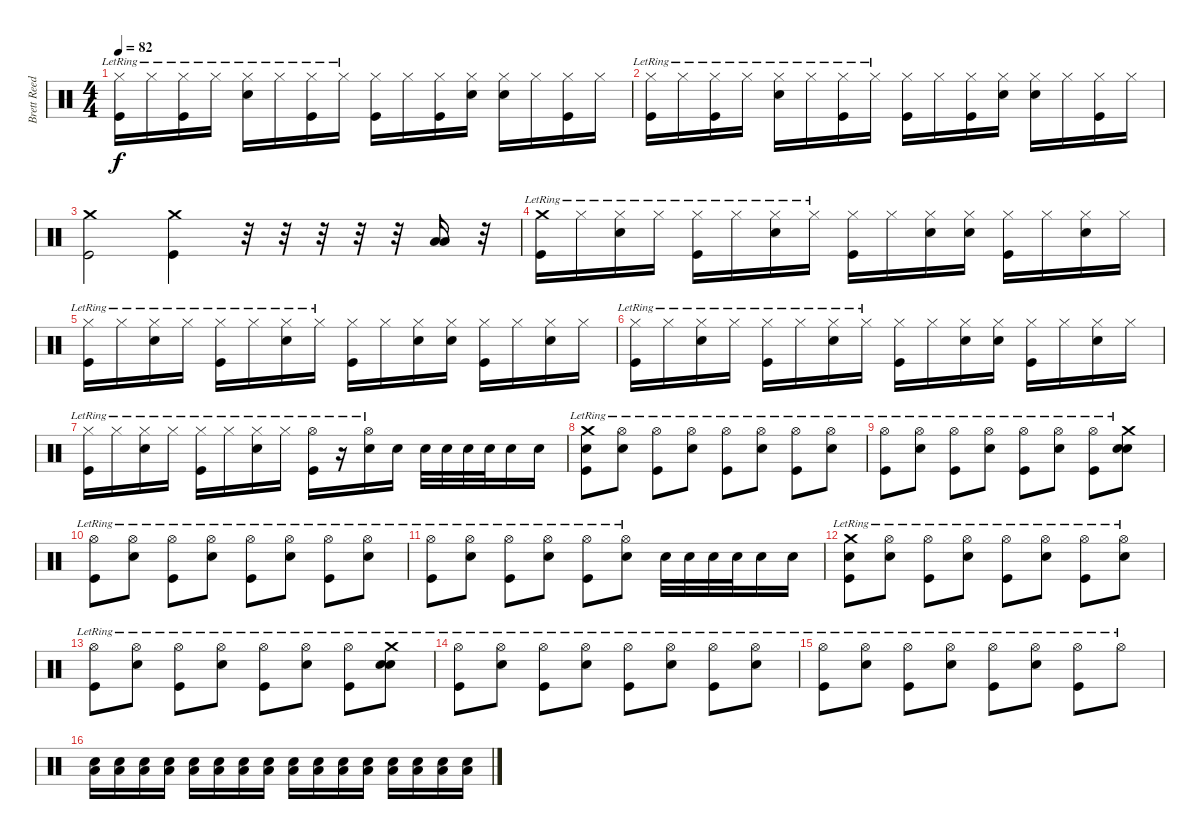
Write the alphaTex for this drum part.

\track ("Brett Reed" "Brett Reed") {instrument percussion}
\staff {score}
\articulation defaults
\ts (4 4)
\tempo 82
\clef neutral
\ks c
("Hi-Hat (closed)"{lr} "Kick (hit)").16{dy f} "Hi-Hat (closed)"{lr}.16 ("Hi-Hat (closed)"{lr} "Kick (hit)").16 "Hi-Hat (closed)"{lr}.16 ("Hi-Hat (closed)"{lr} "Snare (hit) 2").16 "Hi-Hat (closed)"{lr}.16 ("Hi-Hat (closed)"{lr} "Kick (hit)").16 "Hi-Hat (closed)"{lr}.16 ("Hi-Hat (closed)" "Kick (hit)").16 "Hi-Hat (closed)".16 ("Hi-Hat (closed)" "Kick (hit)").16 ("Hi-Hat (closed)" "Snare (hit)").16 ("Hi-Hat (closed)" "Snare (hit) 2").16 "Hi-Hat (closed)".16 ("Hi-Hat (closed)" "Kick (hit)").16 "Hi-Hat (closed)".16 |
("Hi-Hat (closed)"{lr} "Kick (hit)").16 "Hi-Hat (closed)"{lr}.16 ("Hi-Hat (closed)"{lr} "Kick (hit)").16 "Hi-Hat (closed)"{lr}.16 ("Hi-Hat (closed)"{lr} "Snare (hit) 2").16 "Hi-Hat (closed)"{lr}.16 ("Hi-Hat (closed)"{lr} "Kick (hit)").16 "Hi-Hat (closed)"{lr}.16 ("Hi-Hat (closed)" "Kick (hit)").16 "Hi-Hat (closed)".16 ("Hi-Hat (closed)" "Kick (hit)").16 ("Hi-Hat (closed)" "Snare (hit)").16 ("Hi-Hat (closed)" "Snare (hit) 2").16 "Hi-Hat (closed)".16 ("Hi-Hat (closed)" "Kick (hit)").16 "Hi-Hat (closed)".16 |
("Crash medium (hit)" "Kick (hit)").2 ("Crash medium (hit)" "Kick (hit)").4 r.32 r.32 r.32 r.32 r.32 ("Low Tom (hit)" "Low Floor Tom (hit)").16 r.32 |
("Crash medium (hit)"{lr} "Kick (hit)").16 "Hi-Hat (closed)"{lr}.16 ("Hi-Hat (closed)"{lr} "Snare (hit) 2").16 "Hi-Hat (closed)"{lr}.16 ("Hi-Hat (closed)"{lr} "Kick (hit)").16 "Hi-Hat (closed)"{lr}.16 ("Hi-Hat (closed)"{lr} "Snare (hit) 2").16 "Hi-Hat (closed)"{lr}.16 ("Hi-Hat (closed)" "Kick (hit)").16 "Hi-Hat (closed)".16 ("Hi-Hat (closed)" "Snare (hit) 2").16 ("Hi-Hat (closed)" "Snare (hit)").16 ("Hi-Hat (closed)" "Kick (hit)").16 "Hi-Hat (closed)".16 ("Hi-Hat (closed)" "Snare (hit) 2").16 "Hi-Hat (closed)".16 |
("Hi-Hat (closed)"{lr} "Kick (hit)").16 "Hi-Hat (closed)"{lr}.16 ("Hi-Hat (closed)"{lr} "Snare (hit) 2").16 "Hi-Hat (closed)"{lr}.16 ("Hi-Hat (closed)"{lr} "Kick (hit)").16 "Hi-Hat (closed)"{lr}.16 ("Hi-Hat (closed)"{lr} "Snare (hit) 2").16 "Hi-Hat (closed)"{lr}.16 ("Hi-Hat (closed)" "Kick (hit)").16 "Hi-Hat (closed)".16 ("Hi-Hat (closed)" "Snare (hit) 2").16 ("Hi-Hat (closed)" "Snare (hit)").16 ("Hi-Hat (closed)" "Kick (hit)").16 "Hi-Hat (closed)".16 ("Hi-Hat (closed)" "Snare (hit) 2").16 "Hi-Hat (closed)".16 |
("Hi-Hat (closed)"{lr} "Kick (hit)").16 "Hi-Hat (closed)"{lr}.16 ("Hi-Hat (closed)"{lr} "Snare (hit) 2").16 "Hi-Hat (closed)"{lr}.16 ("Hi-Hat (closed)"{lr} "Kick (hit)").16 "Hi-Hat (closed)"{lr}.16 ("Hi-Hat (closed)"{lr} "Snare (hit) 2").16 "Hi-Hat (closed)"{lr}.16 ("Hi-Hat (closed)" "Kick (hit)").16 "Hi-Hat (closed)".16 ("Hi-Hat (closed)" "Snare (hit) 2").16 ("Hi-Hat (closed)" "Snare (hit)").16 ("Hi-Hat (closed)" "Kick (hit)").16 "Hi-Hat (closed)".16 ("Hi-Hat (closed)" "Snare (hit) 2").16 "Hi-Hat (closed)".16 |
("Hi-Hat (closed)"{lr} "Kick (hit)").16 "Hi-Hat (closed)"{lr}.16 ("Hi-Hat (closed)"{lr} "Snare (hit) 2").16 "Hi-Hat (closed)"{lr}.16 ("Hi-Hat (closed)"{lr} "Kick (hit)").16 "Hi-Hat (closed)"{lr}.16 ("Hi-Hat (closed)"{lr} "Snare (hit) 2").16 "Hi-Hat (closed)"{lr}.16 ("Hi-Hat (open)"{lr} "Kick (hit)").16 r.16 ("Hi-Hat (open)"{lr} "Snare (hit) 2").16 "Snare (hit)".16 "Snare (hit) 2".32 "Snare (hit) 2".32 "Snare (hit) 2".32 "Snare (hit) 2".32 "Snare (hit) 2".16 "Snare (hit) 2".16 |
("Crash medium (hit)"{lr} "Kick (hit)" "Snare (hit)").8 ("Hi-Hat (open)"{lr} "Snare (hit) 2").8 ("Hi-Hat (open)"{lr} "Kick (hit)").8 ("Hi-Hat (open)"{lr} "Snare (hit) 2").8 ("Hi-Hat (open)"{lr} "Kick (hit)").8 ("Hi-Hat (open)"{lr} "Snare (hit) 2").8 ("Hi-Hat (open)"{lr} "Kick (hit)").8 ("Hi-Hat (open)"{lr} "Snare (hit) 2").8 |
("Hi-Hat (open)"{lr} "Kick (hit)").8 ("Hi-Hat (open)"{lr} "Snare (hit) 2").8 ("Hi-Hat (open)"{lr} "Kick (hit)").8 ("Hi-Hat (open)"{lr} "Snare (hit) 2").8 ("Hi-Hat (open)"{lr} "Kick (hit)").8 ("Hi-Hat (open)"{lr} "Snare (hit) 2").8 ("Hi-Hat (open)"{lr} "Kick (hit)").8 ("Crash medium (hit)"{lr} "Snare (hit)" "Snare (hit) 2").8 |
("Hi-Hat (open)"{lr} "Kick (hit)").8 ("Hi-Hat (open)"{lr} "Snare (hit) 2").8 ("Hi-Hat (open)"{lr} "Kick (hit)").8 ("Hi-Hat (open)"{lr} "Snare (hit) 2").8 ("Hi-Hat (open)"{lr} "Kick (hit)").8 ("Hi-Hat (open)"{lr} "Snare (hit) 2").8 ("Hi-Hat (open)"{lr} "Kick (hit)").8 ("Hi-Hat (open)"{lr} "Snare (hit) 2").8 |
("Hi-Hat (open)"{lr} "Kick (hit)").8 ("Hi-Hat (open)"{lr} "Snare (hit) 2").8 ("Hi-Hat (open)"{lr} "Kick (hit)").8 ("Hi-Hat (open)"{lr} "Snare (hit) 2").8 ("Hi-Hat (open)"{lr} "Kick (hit)").8 ("Hi-Hat (open)"{lr} "Snare (hit) 2").8 "Snare (hit) 2".32 "Snare (hit) 2".32 "Snare (hit) 2".32 "Snare (hit) 2".32 "Snare (hit) 2".16 "Snare (hit) 2".16 |
("Crash medium (hit)"{lr} "Kick (hit)" "Snare (hit)").8 ("Hi-Hat (open)"{lr} "Snare (hit) 2").8 ("Hi-Hat (open)"{lr} "Kick (hit)").8 ("Hi-Hat (open)"{lr} "Snare (hit) 2").8 ("Hi-Hat (open)"{lr} "Kick (hit)").8 ("Hi-Hat (open)"{lr} "Snare (hit) 2").8 ("Hi-Hat (open)"{lr} "Kick (hit)").8 ("Hi-Hat (open)"{lr} "Snare (hit) 2").8 |
("Hi-Hat (open)"{lr} "Kick (hit)").8 ("Hi-Hat (open)"{lr} "Snare (hit) 2").8 ("Hi-Hat (open)"{lr} "Kick (hit)").8 ("Hi-Hat (open)"{lr} "Snare (hit) 2").8 ("Hi-Hat (open)"{lr} "Kick (hit)").8 ("Hi-Hat (open)"{lr} "Snare (hit) 2").8 ("Hi-Hat (open)"{lr} "Kick (hit)").8 ("Crash medium (hit)"{lr} "Snare (hit)" "Snare (hit) 2").8 |
("Hi-Hat (open)"{lr} "Kick (hit)").8 ("Hi-Hat (open)"{lr} "Snare (hit) 2").8 ("Hi-Hat (open)"{lr} "Kick (hit)").8 ("Hi-Hat (open)"{lr} "Snare (hit) 2").8 ("Hi-Hat (open)"{lr} "Kick (hit)").8 ("Hi-Hat (open)"{lr} "Snare (hit) 2").8 ("Hi-Hat (open)"{lr} "Kick (hit)").8 ("Hi-Hat (open)"{lr} "Snare (hit) 2").8 |
("Hi-Hat (open)"{lr} "Kick (hit)").8 ("Hi-Hat (open)"{lr} "Snare (hit) 2").8 ("Hi-Hat (open)"{lr} "Kick (hit)").8 ("Hi-Hat (open)"{lr} "Snare (hit) 2").8 ("Hi-Hat (open)"{lr} "Kick (hit)").8 ("Hi-Hat (open)"{lr} "Snare (hit) 2").8 ("Hi-Hat (open)"{lr} "Kick (hit)").8 "Hi-Hat (open)"{lr}.8 |
("Low Floor Tom (hit)" "Snare (hit) 2").16 ("Low Floor Tom (hit)" "Snare (hit) 2").16 ("Low Floor Tom (hit)" "Snare (hit) 2").16 ("Low Floor Tom (hit)" "Snare (hit) 2").16 ("Low Floor Tom (hit)" "Snare (hit) 2").16 ("Low Floor Tom (hit)" "Snare (hit) 2").16 ("Low Floor Tom (hit)" "Snare (hit) 2").16 ("Low Floor Tom (hit)" "Snare (hit) 2").16 ("Low Floor Tom (hit)" "Snare (hit) 2").16 ("Low Floor Tom (hit)" "Snare (hit) 2").16 ("Low Floor Tom (hit)" "Snare (hit) 2").16 ("Low Floor Tom (hit)" "Snare (hit) 2").16 ("Low Floor Tom (hit)" "Snare (hit) 2").16 ("Low Floor Tom (hit)" "Snare (hit) 2").16 ("Low Floor Tom (hit)" "Snare (hit) 2").16 ("Low Floor Tom (hit)" "Snare (hit) 2").16
